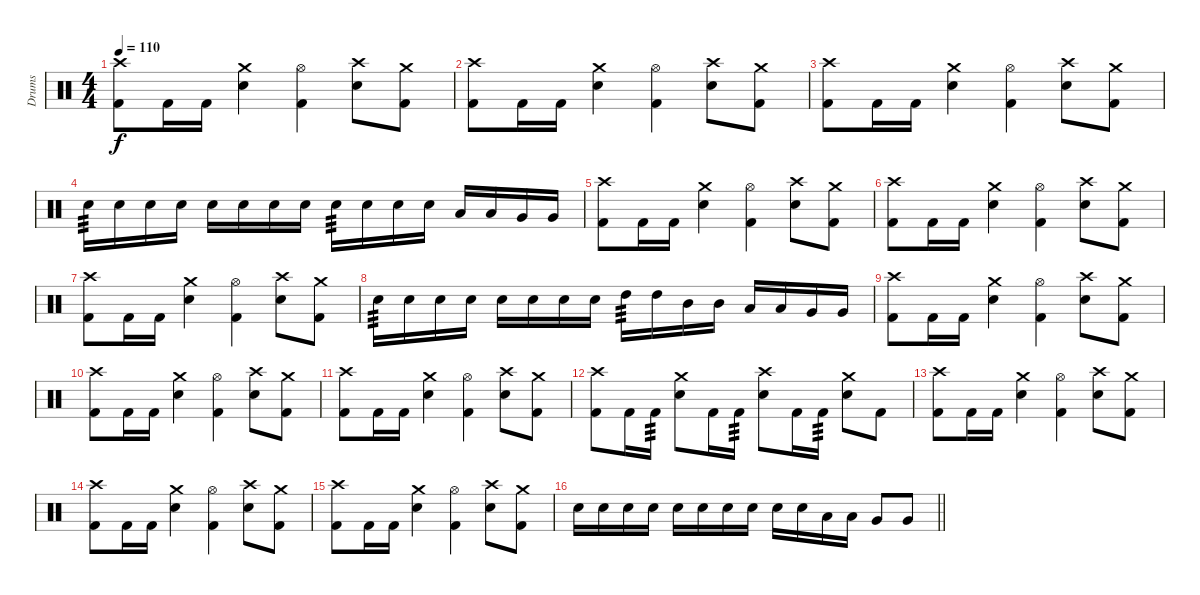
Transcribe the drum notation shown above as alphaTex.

\track ("Drums" "Drums") {instrument percussion}
\staff {score}
\articulation defaults
\ts (4 4)
\tempo 110
\clef neutral
\ks c
("Crash high (hit)" "Kick (hit) 2").8{dy f} "Kick (hit) 2".16 "Kick (hit) 2".16 ("Crash medium (hit)" "Electric Snare (hit)").4 ("Hi-Hat (open)" "Kick (hit) 2").4 ("Crash high (hit)" "Electric Snare (hit)").8 ("Crash medium (hit)" "Kick (hit) 2").8 |
("Crash high (hit)" "Kick (hit) 2").8 "Kick (hit) 2".16 "Kick (hit) 2".16 ("Crash medium (hit)" "Electric Snare (hit)").4 ("Hi-Hat (open)" "Kick (hit) 2").4 ("Crash high (hit)" "Electric Snare (hit)").8 ("Crash medium (hit)" "Kick (hit) 2").8 |
("Crash high (hit)" "Kick (hit) 2").8 "Kick (hit) 2".16 "Kick (hit) 2".16 ("Crash medium (hit)" "Electric Snare (hit)").4 ("Hi-Hat (open)" "Kick (hit) 2").4 ("Crash high (hit)" "Electric Snare (hit)").8 ("Crash medium (hit)" "Kick (hit) 2").8 |
"Electric Snare (hit)".16{tp 3} "Electric Snare (hit)".16 "Electric Snare (hit)".16 "Electric Snare (hit)".16 "Electric Snare (hit)".16 "Electric Snare (hit)".16 "Electric Snare (hit)".16 "Electric Snare (hit)".16 "Electric Snare (hit)".16{tp 3} "Electric Snare (hit)".16 "Electric Snare (hit)".16 "Electric Snare (hit)".16 "Low Tom (hit)".16 "Low Tom (hit)".16 "Very Low Tom (hit)".16 "Very Low Tom (hit)".16 |
("Crash high (hit)" "Kick (hit) 2").8 "Kick (hit) 2".16 "Kick (hit) 2".16 ("Crash medium (hit)" "Electric Snare (hit)").4 ("Hi-Hat (open)" "Kick (hit) 2").4 ("Crash high (hit)" "Electric Snare (hit)").8 ("Crash medium (hit)" "Kick (hit) 2").8 |
("Crash high (hit)" "Kick (hit) 2").8 "Kick (hit) 2".16 "Kick (hit) 2".16 ("Crash medium (hit)" "Electric Snare (hit)").4 ("Hi-Hat (open)" "Kick (hit) 2").4 ("Crash high (hit)" "Electric Snare (hit)").8 ("Crash medium (hit)" "Kick (hit) 2").8 |
("Crash high (hit)" "Kick (hit) 2").8 "Kick (hit) 2".16 "Kick (hit) 2".16 ("Crash medium (hit)" "Electric Snare (hit)").4 ("Hi-Hat (open)" "Kick (hit) 2").4 ("Crash high (hit)" "Electric Snare (hit)").8 ("Crash medium (hit)" "Kick (hit) 2").8 |
"Electric Snare (hit)".16{tp 3} "Electric Snare (hit)".16 "Electric Snare (hit)".16 "Electric Snare (hit)".16 "Electric Snare (hit)".16 "Electric Snare (hit)".16 "Electric Snare (hit)".16 "Electric Snare (hit)".16 "High Tom (hit)".16{tp 3} "High Tom (hit)".16 "Mid Tom (hit)".16 "Mid Tom (hit)".16 "Low Tom (hit)".16 "Low Tom (hit)".16 "Very Low Tom (hit)".16 "Very Low Tom (hit)".16 |
("Crash high (hit)" "Kick (hit) 2").8 "Kick (hit) 2".16 "Kick (hit) 2".16 ("Crash medium (hit)" "Electric Snare (hit)").4 ("Hi-Hat (open)" "Kick (hit) 2").4 ("Crash high (hit)" "Electric Snare (hit)").8 ("Crash medium (hit)" "Kick (hit) 2").8 |
("Crash high (hit)" "Kick (hit) 2").8 "Kick (hit) 2".16 "Kick (hit) 2".16 ("Crash medium (hit)" "Electric Snare (hit)").4 ("Hi-Hat (open)" "Kick (hit) 2").4 ("Crash high (hit)" "Electric Snare (hit)").8 ("Crash medium (hit)" "Kick (hit) 2").8 |
("Crash high (hit)" "Kick (hit) 2").8 "Kick (hit) 2".16 "Kick (hit) 2".16 ("Crash medium (hit)" "Electric Snare (hit)").4 ("Hi-Hat (open)" "Kick (hit) 2").4 ("Crash high (hit)" "Electric Snare (hit)").8 ("Crash medium (hit)" "Kick (hit) 2").8 |
("Crash high (hit)" "Kick (hit) 2").8 "Kick (hit) 2".16 "Kick (hit) 2".16{tp 3} ("Crash medium (hit)" "Electric Snare (hit)").8 "Kick (hit) 2".16 "Kick (hit) 2".16{tp 3} ("Crash high (hit)" "Electric Snare (hit)").8 "Kick (hit) 2".16 "Kick (hit) 2".16{tp 3} ("Crash medium (hit)" "Electric Snare (hit)").8 "Kick (hit) 2".8 |
("Crash high (hit)" "Kick (hit) 2").8 "Kick (hit) 2".16 "Kick (hit) 2".16 ("Crash medium (hit)" "Electric Snare (hit)").4 ("Hi-Hat (open)" "Kick (hit) 2").4 ("Crash high (hit)" "Electric Snare (hit)").8 ("Crash medium (hit)" "Kick (hit) 2").8 |
("Crash high (hit)" "Kick (hit) 2").8 "Kick (hit) 2".16 "Kick (hit) 2".16 ("Crash medium (hit)" "Electric Snare (hit)").4 ("Hi-Hat (open)" "Kick (hit) 2").4 ("Crash high (hit)" "Electric Snare (hit)").8 ("Crash medium (hit)" "Kick (hit) 2").8 |
("Crash high (hit)" "Kick (hit) 2").8 "Kick (hit) 2".16 "Kick (hit) 2".16 ("Crash medium (hit)" "Electric Snare (hit)").4 ("Hi-Hat (open)" "Kick (hit) 2").4 ("Crash high (hit)" "Electric Snare (hit)").8 ("Crash medium (hit)" "Kick (hit) 2").8 |
\barLineRight lightlight "Electric Snare (hit)".16 "Electric Snare (hit)".16 "Electric Snare (hit)".16 "Electric Snare (hit)".16 "Electric Snare (hit)".16 "Electric Snare (hit)".16 "Electric Snare (hit)".16 "Electric Snare (hit)".16 "Electric Snare (hit)".16 "Electric Snare (hit)".16 "Low Tom (hit)".16 "Low Tom (hit)".16 "Very Low Tom (hit)".8 "Very Low Tom (hit)".8
